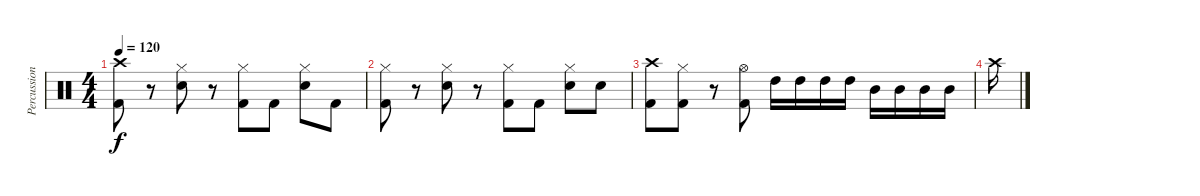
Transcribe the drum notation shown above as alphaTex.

\track ("Percussion" "Percussion") {instrument percussion}
\staff {score}
\articulation defaults
\ts (4 4)
\tempo 120
\clef neutral
\ks c
("Crash high (hit)" "Kick (hit) 2").8{dy f} r.8 ("Hi-Hat (closed)" "Electric Snare (hit)").8 r.8 ("Hi-Hat (closed)" "Kick (hit) 2").8 "Kick (hit) 2".8 ("Hi-Hat (closed)" "Electric Snare (hit)").8 "Kick (hit) 2".8 |
("Hi-Hat (closed)" "Kick (hit) 2").8 r.8 ("Hi-Hat (closed)" "Electric Snare (hit)").8 r.8 ("Hi-Hat (closed)" "Kick (hit) 2").8 "Kick (hit) 2".8 ("Hi-Hat (closed)" "Electric Snare (hit)").8 "Electric Snare (hit)".8 |
("Crash high (hit)" "Kick (hit) 2").8 ("Hi-Hat (closed)" "Kick (hit) 2").8 r.8 ("Hi-Hat (open)" "Kick (hit) 2").8 "High Tom (hit)".16 "High Tom (hit)".16 "High Tom (hit)".16 "High Tom (hit)".16 "Mid Tom (hit)".16 "Mid Tom (hit)".16 "Mid Tom (hit)".16 "Mid Tom (hit)".16 |
"Crash high (hit)".16
